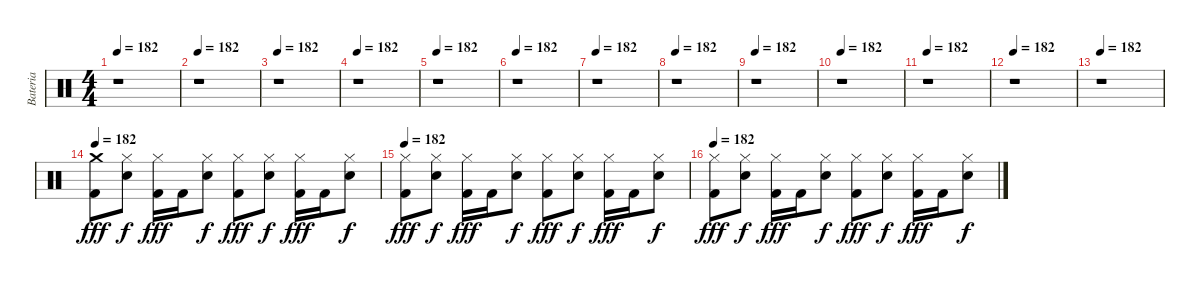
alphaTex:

\track ("Bateria" "Bateria") {instrument percussion}
\staff {score}
\articulation defaults
\ts (4 4)
\tempo 182
\clef neutral
\ks c
r.1{dy fff} |
\tempo 182
r.1 |
\tempo 182
r.1 |
\tempo 182
r.1 |
\tempo 182
r.1 |
\tempo 182
r.1 |
\tempo 182
r.1 |
\tempo 182
r.1 |
\tempo 182
r.1 |
\tempo 182
r.1 |
\tempo 182
r.1 |
\tempo 182
r.1 |
\tempo 182
r.1 |
\tempo 182
("Crash medium (hit)" "Kick (hit) 2").8 ("Hi-Hat (closed)" "Electric Snare (hit)").8{dy f} ("Hi-Hat (closed)" "Kick (hit) 2").16{dy fff} "Kick (hit) 2".16 ("Hi-Hat (closed)" "Electric Snare (hit)").8{dy f} ("Hi-Hat (closed)" "Kick (hit) 2").8{dy fff} ("Hi-Hat (closed)" "Electric Snare (hit)").8{dy f} ("Hi-Hat (closed)" "Kick (hit) 2").16{dy fff} "Kick (hit) 2".16 ("Hi-Hat (closed)" "Electric Snare (hit)").8{dy f} |
\tempo 182
("Hi-Hat (closed)" "Kick (hit) 2").8{dy fff} ("Hi-Hat (closed)" "Electric Snare (hit)").8{dy f} ("Hi-Hat (closed)" "Kick (hit) 2").16{dy fff} "Kick (hit) 2".16 ("Hi-Hat (closed)" "Electric Snare (hit)").8{dy f} ("Hi-Hat (closed)" "Kick (hit) 2").8{dy fff} ("Hi-Hat (closed)" "Electric Snare (hit)").8{dy f} ("Hi-Hat (closed)" "Kick (hit) 2").16{dy fff} "Kick (hit) 2".16 ("Hi-Hat (closed)" "Electric Snare (hit)").8{dy f} |
\tempo 182
("Hi-Hat (closed)" "Kick (hit) 2").8{dy fff} ("Hi-Hat (closed)" "Electric Snare (hit)").8{dy f} ("Hi-Hat (closed)" "Kick (hit) 2").16{dy fff} "Kick (hit) 2".16 ("Hi-Hat (closed)" "Electric Snare (hit)").8{dy f} ("Hi-Hat (closed)" "Kick (hit) 2").8{dy fff} ("Hi-Hat (closed)" "Electric Snare (hit)").8{dy f} ("Hi-Hat (closed)" "Kick (hit) 2").16{dy fff} "Kick (hit) 2".16 ("Hi-Hat (closed)" "Electric Snare (hit)").8{dy f}
